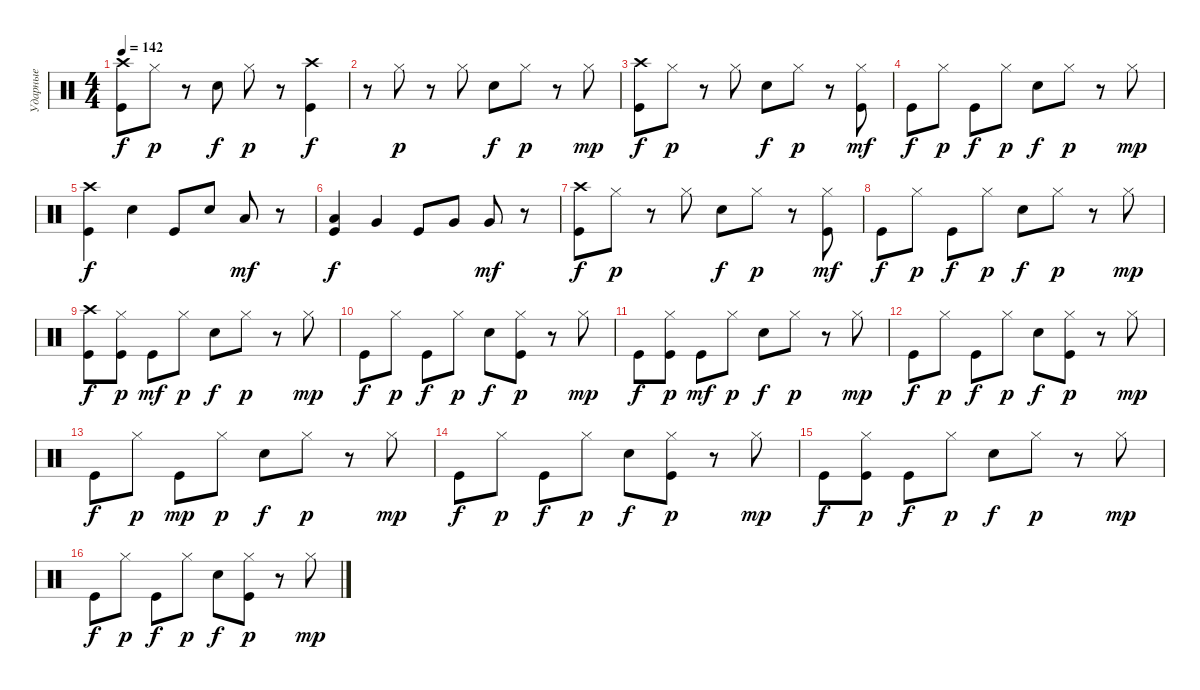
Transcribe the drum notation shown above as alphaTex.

\track ("Ударные" "Ударные") {instrument percussion}
\staff {score}
\articulation defaults
\ts (4 4)
\tempo 142
\clef neutral
\ks c
("Crash high (hit)" "Kick (hit)").8{dy f} "Hi-Hat (closed)".8{dy p} r.8 "Snare (hit) 2".8{dy f} "Hi-Hat (closed)".8{dy p} r.8 ("Crash high (hit)" "Kick (hit)").4{dy f} |
r.8 "Hi-Hat (closed)".8{dy p} r.8 "Hi-Hat (closed)".8 "Snare (hit) 2".8{dy f} "Hi-Hat (closed)".8{dy p} r.8 "Hi-Hat (closed)".8{dy mp} |
("Crash high (hit)" "Kick (hit)").8{dy f} "Hi-Hat (closed)".8{dy p} r.8 "Hi-Hat (closed)".8 "Snare (hit) 2".8{dy f} "Hi-Hat (closed)".8{dy p} r.8 ("Hi-Hat (closed)" "Kick (hit)").8{dy mf} |
"Kick (hit)".8{dy f} "Hi-Hat (closed)".8{dy p} "Kick (hit)".8{dy f} "Hi-Hat (closed)".8{dy p} "Snare (hit) 2".8{dy f} "Hi-Hat (closed)".8{dy p} r.8 "Hi-Hat (closed)".8{dy mp} |
("Crash high (hit)" "Kick (hit)").4{dy f} "Electric Snare (hit)".4 "Kick (hit)".8 "Electric Snare (hit)".8 "Low Tom (hit)".8{dy mf} r.8 |
("Kick (hit)" "Low Tom (hit)").4{dy f} "Very Low Tom (hit)".4 "Kick (hit)".8 "Very Low Tom (hit)".8 "Very Low Tom (hit)".8{dy mf} r.8 |
("Crash high (hit)" "Kick (hit)").8{dy f} "Hi-Hat (closed)".8{dy p} r.8 "Hi-Hat (closed)".8 "Snare (hit) 2".8{dy f} "Hi-Hat (closed)".8{dy p} r.8 ("Hi-Hat (closed)" "Kick (hit)").8{dy mf} |
"Kick (hit)".8{dy f} "Hi-Hat (closed)".8{dy p} "Kick (hit)".8{dy f} "Hi-Hat (closed)".8{dy p} "Snare (hit) 2".8{dy f} "Hi-Hat (closed)".8{dy p} r.8 "Hi-Hat (closed)".8{dy mp} |
("Kick (hit)" "Crash high (hit)").8{dy f} ("Kick (hit)" "Hi-Hat (closed)").8{dy p} "Kick (hit)".8{dy mf} "Hi-Hat (closed)".8{dy p} "Snare (hit) 2".8{dy f} "Hi-Hat (closed)".8{dy p} r.8 "Hi-Hat (closed)".8{dy mp} |
"Kick (hit)".8{dy f} "Hi-Hat (closed)".8{dy p} "Kick (hit)".8{dy f} "Hi-Hat (closed)".8{dy p} "Snare (hit) 2".8{dy f} ("Kick (hit)" "Hi-Hat (closed)").8{dy p} r.8 "Hi-Hat (closed)".8{dy mp} |
"Kick (hit)".8{dy f} ("Kick (hit)" "Hi-Hat (closed)").8{dy p} "Kick (hit)".8{dy mf} "Hi-Hat (closed)".8{dy p} "Snare (hit) 2".8{dy f} "Hi-Hat (closed)".8{dy p} r.8 "Hi-Hat (closed)".8{dy mp} |
"Kick (hit)".8{dy f} "Hi-Hat (closed)".8{dy p} "Kick (hit)".8{dy f} "Hi-Hat (closed)".8{dy p} "Snare (hit) 2".8{dy f} ("Kick (hit)" "Hi-Hat (closed)").8{dy p} r.8 "Hi-Hat (closed)".8{dy mp} |
"Kick (hit)".8{dy f} "Hi-Hat (closed)".8{dy p} "Kick (hit)".8{dy mp} "Hi-Hat (closed)".8{dy p} "Snare (hit) 2".8{dy f} "Hi-Hat (closed)".8{dy p} r.8 "Hi-Hat (closed)".8{dy mp} |
"Kick (hit)".8{dy f} "Hi-Hat (closed)".8{dy p} "Kick (hit)".8{dy f} "Hi-Hat (closed)".8{dy p} "Snare (hit) 2".8{dy f} ("Kick (hit)" "Hi-Hat (closed)").8{dy p} r.8 "Hi-Hat (closed)".8{dy mp} |
"Kick (hit)".8{dy f} ("Kick (hit)" "Hi-Hat (closed)").8{dy p} "Kick (hit)".8{dy f} "Hi-Hat (closed)".8{dy p} "Snare (hit) 2".8{dy f} "Hi-Hat (closed)".8{dy p} r.8 "Hi-Hat (closed)".8{dy mp} |
"Kick (hit)".8{dy f} "Hi-Hat (closed)".8{dy p} "Kick (hit)".8{dy f} "Hi-Hat (closed)".8{dy p} "Snare (hit) 2".8{dy f} ("Kick (hit)" "Hi-Hat (closed)").8{dy p} r.8 "Hi-Hat (closed)".8{dy mp}
